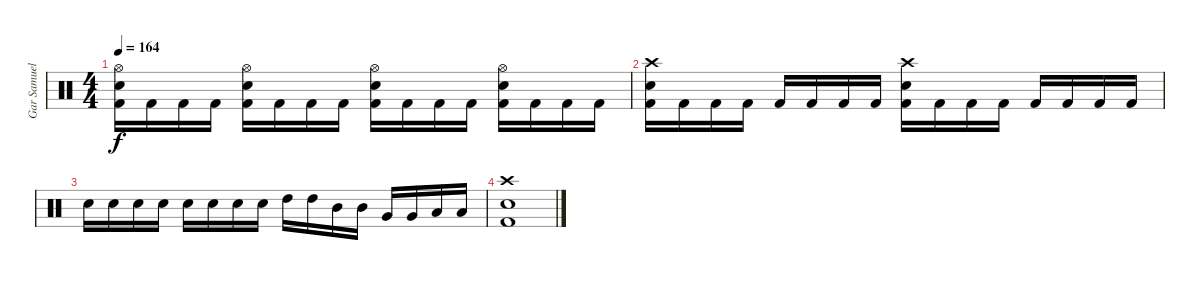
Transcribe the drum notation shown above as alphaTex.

\track ("Gar Samuelson (Drums)" "Gar Samuel") {instrument percussion}
\staff {score}
\articulation defaults
\ts (4 4)
\tempo 164
\clef neutral
\ks c
("Hi-Hat (open)" "Electric Snare (hit)" "Kick (hit) 2").16{dy f} "Kick (hit) 2".16 "Kick (hit) 2".16 "Kick (hit) 2".16 ("Hi-Hat (open)" "Electric Snare (hit)" "Kick (hit) 2").16 "Kick (hit) 2".16 "Kick (hit) 2".16 "Kick (hit) 2".16 ("Hi-Hat (open)" "Electric Snare (hit)" "Kick (hit) 2").16 "Kick (hit) 2".16 "Kick (hit) 2".16 "Kick (hit) 2".16 ("Hi-Hat (open)" "Electric Snare (hit)" "Kick (hit) 2").16 "Kick (hit) 2".16 "Kick (hit) 2".16 "Kick (hit) 2".16 |
("Crash high (hit)" "Electric Snare (hit)" "Kick (hit) 2").16 "Kick (hit) 2".16 "Kick (hit) 2".16 "Kick (hit) 2".16 "Kick (hit) 2".16 "Kick (hit) 2".16 "Kick (hit) 2".16 "Kick (hit) 2".16 ("Crash high (hit)" "Electric Snare (hit)" "Kick (hit) 2").16 "Kick (hit) 2".16 "Kick (hit) 2".16 "Kick (hit) 2".16 "Kick (hit) 2".16 "Kick (hit) 2".16 "Kick (hit) 2".16 "Kick (hit) 2".16 |
"Electric Snare (hit)".16 "Electric Snare (hit)".16 "Electric Snare (hit)".16 "Electric Snare (hit)".16 "Electric Snare (hit)".16 "Electric Snare (hit)".16 "Electric Snare (hit)".16 "Electric Snare (hit)".16 "High Tom (hit)".16 "High Tom (hit)".16 "Mid Tom (hit)".16 "Mid Tom (hit)".16 "Very Low Tom (hit)".16 "Very Low Tom (hit)".16 "Low Floor Tom (hit)".16 "Low Floor Tom (hit)".16 |
("Crash high (hit)" "Electric Snare (hit)" "Kick (hit) 2").1
